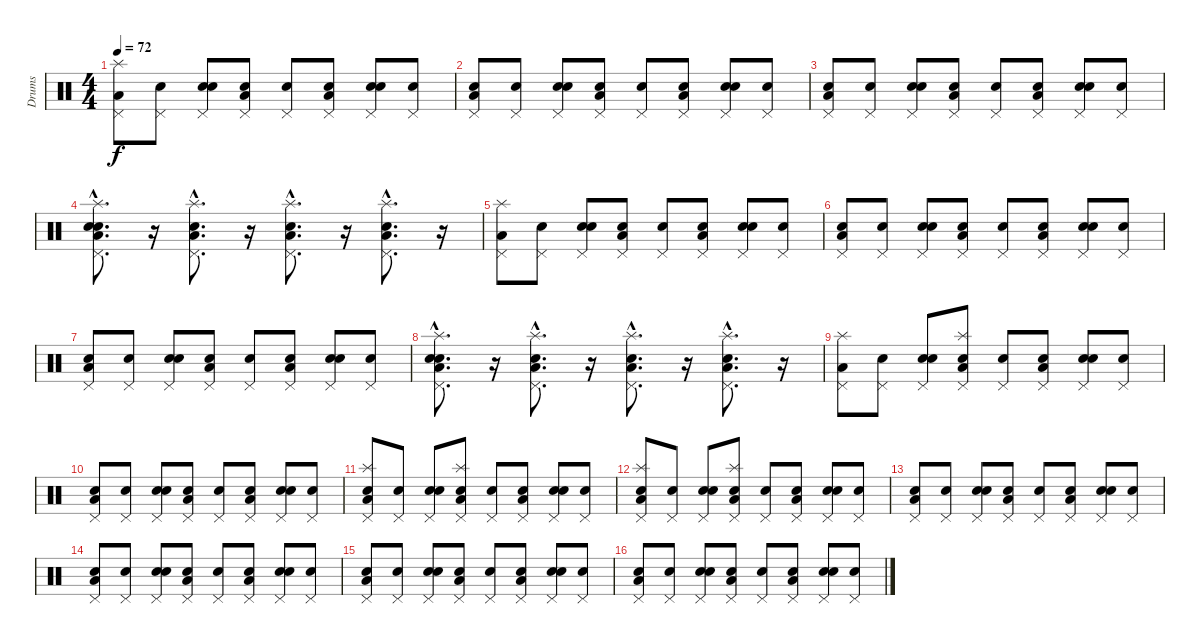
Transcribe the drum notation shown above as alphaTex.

\track ("Drums" "Drums") {instrument percussion}
\staff {score}
\articulation defaults
\ts (4 4)
\tempo 72
\clef neutral
\ks c
("Low Floor Tom (hit)" "Pedal Hi-Hat (hit)" "Splash (hit)").8{dy f} ("Snare (hit)" "Pedal Hi-Hat (hit)").8 ("Snare (hit)" "Electric Snare (hit)" "Pedal Hi-Hat (hit)").8 ("Snare (hit)" "Low Floor Tom (hit)" "Pedal Hi-Hat (hit)").8 ("Snare (hit)" "Pedal Hi-Hat (hit)").8 ("Snare (hit)" "Low Floor Tom (hit)" "Pedal Hi-Hat (hit)").8 ("Snare (hit)" "Electric Snare (hit)" "Pedal Hi-Hat (hit)").8 ("Snare (hit)" "Pedal Hi-Hat (hit)").8 |
("Snare (hit)" "Low Floor Tom (hit)" "Pedal Hi-Hat (hit)").8 ("Snare (hit)" "Pedal Hi-Hat (hit)").8 ("Snare (hit)" "Electric Snare (hit)" "Pedal Hi-Hat (hit)").8 ("Snare (hit)" "Low Floor Tom (hit)" "Pedal Hi-Hat (hit)").8 ("Snare (hit)" "Pedal Hi-Hat (hit)").8 ("Snare (hit)" "Low Floor Tom (hit)" "Pedal Hi-Hat (hit)").8 ("Snare (hit)" "Electric Snare (hit)" "Pedal Hi-Hat (hit)").8 ("Snare (hit)" "Pedal Hi-Hat (hit)").8 |
("Snare (hit)" "Low Floor Tom (hit)" "Pedal Hi-Hat (hit)").8 ("Snare (hit)" "Pedal Hi-Hat (hit)").8 ("Snare (hit)" "Electric Snare (hit)" "Pedal Hi-Hat (hit)").8 ("Snare (hit)" "Low Floor Tom (hit)" "Pedal Hi-Hat (hit)").8 ("Snare (hit)" "Pedal Hi-Hat (hit)").8 ("Snare (hit)" "Low Floor Tom (hit)" "Pedal Hi-Hat (hit)").8 ("Snare (hit)" "Electric Snare (hit)" "Pedal Hi-Hat (hit)").8 ("Snare (hit)" "Pedal Hi-Hat (hit)").8 |
("Snare (hit)"{hac} "Electric Snare (hit)"{hac} "Low Floor Tom (hit)"{hac} "Pedal Hi-Hat (hit)"{hac} "Splash (hit)"{hac}).8{d} r.16 ("Electric Snare (hit)"{hac} "Low Floor Tom (hit)"{hac} "Pedal Hi-Hat (hit)"{hac} "Splash (hit)"{hac}).8{d} r.16 ("Electric Snare (hit)"{hac} "Low Floor Tom (hit)"{hac} "Pedal Hi-Hat (hit)"{hac} "Splash (hit)"{hac}).8{d} r.16 ("Electric Snare (hit)"{hac} "Low Floor Tom (hit)"{hac} "Pedal Hi-Hat (hit)"{hac} "Splash (hit)"{hac}).8{d} r.16 |
("Low Floor Tom (hit)" "Pedal Hi-Hat (hit)" "Splash (hit)").8 ("Snare (hit)" "Pedal Hi-Hat (hit)").8 ("Snare (hit)" "Electric Snare (hit)" "Pedal Hi-Hat (hit)").8 ("Snare (hit)" "Low Floor Tom (hit)" "Pedal Hi-Hat (hit)").8 ("Snare (hit)" "Pedal Hi-Hat (hit)").8 ("Snare (hit)" "Low Floor Tom (hit)" "Pedal Hi-Hat (hit)").8 ("Snare (hit)" "Electric Snare (hit)" "Pedal Hi-Hat (hit)").8 ("Snare (hit)" "Pedal Hi-Hat (hit)").8 |
("Snare (hit)" "Low Floor Tom (hit)" "Pedal Hi-Hat (hit)").8 ("Snare (hit)" "Pedal Hi-Hat (hit)").8 ("Snare (hit)" "Electric Snare (hit)" "Pedal Hi-Hat (hit)").8 ("Snare (hit)" "Low Floor Tom (hit)" "Pedal Hi-Hat (hit)").8 ("Snare (hit)" "Pedal Hi-Hat (hit)").8 ("Snare (hit)" "Low Floor Tom (hit)" "Pedal Hi-Hat (hit)").8 ("Snare (hit)" "Electric Snare (hit)" "Pedal Hi-Hat (hit)").8 ("Snare (hit)" "Pedal Hi-Hat (hit)").8 |
("Snare (hit)" "Low Floor Tom (hit)" "Pedal Hi-Hat (hit)").8 ("Snare (hit)" "Pedal Hi-Hat (hit)").8 ("Snare (hit)" "Electric Snare (hit)" "Pedal Hi-Hat (hit)").8 ("Snare (hit)" "Low Floor Tom (hit)" "Pedal Hi-Hat (hit)").8 ("Snare (hit)" "Pedal Hi-Hat (hit)").8 ("Snare (hit)" "Low Floor Tom (hit)" "Pedal Hi-Hat (hit)").8 ("Snare (hit)" "Electric Snare (hit)" "Pedal Hi-Hat (hit)").8 ("Snare (hit)" "Pedal Hi-Hat (hit)").8 |
("Snare (hit)"{hac} "Electric Snare (hit)"{hac} "Low Floor Tom (hit)"{hac} "Pedal Hi-Hat (hit)"{hac} "Splash (hit)"{hac}).8{d} r.16 ("Electric Snare (hit)"{hac} "Low Floor Tom (hit)"{hac} "Pedal Hi-Hat (hit)"{hac} "Splash (hit)"{hac}).8{d} r.16 ("Electric Snare (hit)"{hac} "Low Floor Tom (hit)"{hac} "Pedal Hi-Hat (hit)"{hac} "Splash (hit)"{hac}).8{d} r.16 ("Electric Snare (hit)"{hac} "Low Floor Tom (hit)"{hac} "Pedal Hi-Hat (hit)"{hac} "Splash (hit)"{hac}).8{d} r.16 |
("Low Floor Tom (hit)" "Pedal Hi-Hat (hit)" "Splash (hit)").8 ("Snare (hit)" "Pedal Hi-Hat (hit)").8 ("Snare (hit)" "Electric Snare (hit)" "Pedal Hi-Hat (hit)").8 ("Snare (hit)" "Low Floor Tom (hit)" "Pedal Hi-Hat (hit)" "Splash (hit)").8 ("Snare (hit)" "Pedal Hi-Hat (hit)").8 ("Snare (hit)" "Low Floor Tom (hit)" "Pedal Hi-Hat (hit)").8 ("Snare (hit)" "Electric Snare (hit)" "Pedal Hi-Hat (hit)").8 ("Snare (hit)" "Pedal Hi-Hat (hit)").8 |
("Snare (hit)" "Low Floor Tom (hit)" "Pedal Hi-Hat (hit)").8 ("Snare (hit)" "Pedal Hi-Hat (hit)").8 ("Snare (hit)" "Electric Snare (hit)" "Pedal Hi-Hat (hit)").8 ("Snare (hit)" "Low Floor Tom (hit)" "Pedal Hi-Hat (hit)").8 ("Snare (hit)" "Pedal Hi-Hat (hit)").8 ("Snare (hit)" "Low Floor Tom (hit)" "Pedal Hi-Hat (hit)").8 ("Snare (hit)" "Electric Snare (hit)" "Pedal Hi-Hat (hit)").8 ("Snare (hit)" "Pedal Hi-Hat (hit)").8 |
("Snare (hit)" "Low Floor Tom (hit)" "Pedal Hi-Hat (hit)" "Splash (hit)").8 ("Snare (hit)" "Pedal Hi-Hat (hit)").8 ("Snare (hit)" "Electric Snare (hit)" "Pedal Hi-Hat (hit)").8 ("Snare (hit)" "Low Floor Tom (hit)" "Pedal Hi-Hat (hit)" "Splash (hit)").8 ("Snare (hit)" "Pedal Hi-Hat (hit)").8 ("Snare (hit)" "Low Floor Tom (hit)" "Pedal Hi-Hat (hit)").8 ("Snare (hit)" "Electric Snare (hit)" "Pedal Hi-Hat (hit)").8 ("Snare (hit)" "Pedal Hi-Hat (hit)").8 |
("Snare (hit)" "Low Floor Tom (hit)" "Pedal Hi-Hat (hit)" "Splash (hit)").8 ("Snare (hit)" "Pedal Hi-Hat (hit)").8 ("Snare (hit)" "Electric Snare (hit)" "Pedal Hi-Hat (hit)").8 ("Snare (hit)" "Low Floor Tom (hit)" "Pedal Hi-Hat (hit)" "Splash (hit)").8 ("Snare (hit)" "Pedal Hi-Hat (hit)").8 ("Snare (hit)" "Low Floor Tom (hit)" "Pedal Hi-Hat (hit)").8 ("Snare (hit)" "Electric Snare (hit)" "Pedal Hi-Hat (hit)").8 ("Snare (hit)" "Pedal Hi-Hat (hit)").8 |
("Snare (hit)" "Low Floor Tom (hit)" "Pedal Hi-Hat (hit)").8 ("Snare (hit)" "Pedal Hi-Hat (hit)").8 ("Snare (hit)" "Electric Snare (hit)" "Pedal Hi-Hat (hit)").8 ("Snare (hit)" "Low Floor Tom (hit)" "Pedal Hi-Hat (hit)").8 ("Snare (hit)" "Pedal Hi-Hat (hit)").8 ("Snare (hit)" "Low Floor Tom (hit)" "Pedal Hi-Hat (hit)").8 ("Snare (hit)" "Electric Snare (hit)" "Pedal Hi-Hat (hit)").8 ("Snare (hit)" "Pedal Hi-Hat (hit)").8 |
("Snare (hit)" "Low Floor Tom (hit)" "Pedal Hi-Hat (hit)").8 ("Snare (hit)" "Pedal Hi-Hat (hit)").8 ("Snare (hit)" "Electric Snare (hit)" "Pedal Hi-Hat (hit)").8 ("Snare (hit)" "Low Floor Tom (hit)" "Pedal Hi-Hat (hit)").8 ("Snare (hit)" "Pedal Hi-Hat (hit)").8 ("Snare (hit)" "Low Floor Tom (hit)" "Pedal Hi-Hat (hit)").8 ("Snare (hit)" "Electric Snare (hit)" "Pedal Hi-Hat (hit)").8 ("Snare (hit)" "Pedal Hi-Hat (hit)").8 |
("Snare (hit)" "Low Floor Tom (hit)" "Pedal Hi-Hat (hit)").8 ("Snare (hit)" "Pedal Hi-Hat (hit)").8 ("Snare (hit)" "Electric Snare (hit)" "Pedal Hi-Hat (hit)").8 ("Snare (hit)" "Low Floor Tom (hit)" "Pedal Hi-Hat (hit)").8 ("Snare (hit)" "Pedal Hi-Hat (hit)").8 ("Snare (hit)" "Low Floor Tom (hit)" "Pedal Hi-Hat (hit)").8 ("Snare (hit)" "Electric Snare (hit)" "Pedal Hi-Hat (hit)").8 ("Snare (hit)" "Pedal Hi-Hat (hit)").8 |
("Snare (hit)" "Low Floor Tom (hit)" "Pedal Hi-Hat (hit)").8 ("Snare (hit)" "Pedal Hi-Hat (hit)").8 ("Snare (hit)" "Electric Snare (hit)" "Pedal Hi-Hat (hit)").8 ("Snare (hit)" "Low Floor Tom (hit)" "Pedal Hi-Hat (hit)").8 ("Snare (hit)" "Pedal Hi-Hat (hit)").8 ("Snare (hit)" "Low Floor Tom (hit)" "Pedal Hi-Hat (hit)").8 ("Snare (hit)" "Electric Snare (hit)" "Pedal Hi-Hat (hit)").8 ("Snare (hit)" "Pedal Hi-Hat (hit)").8
